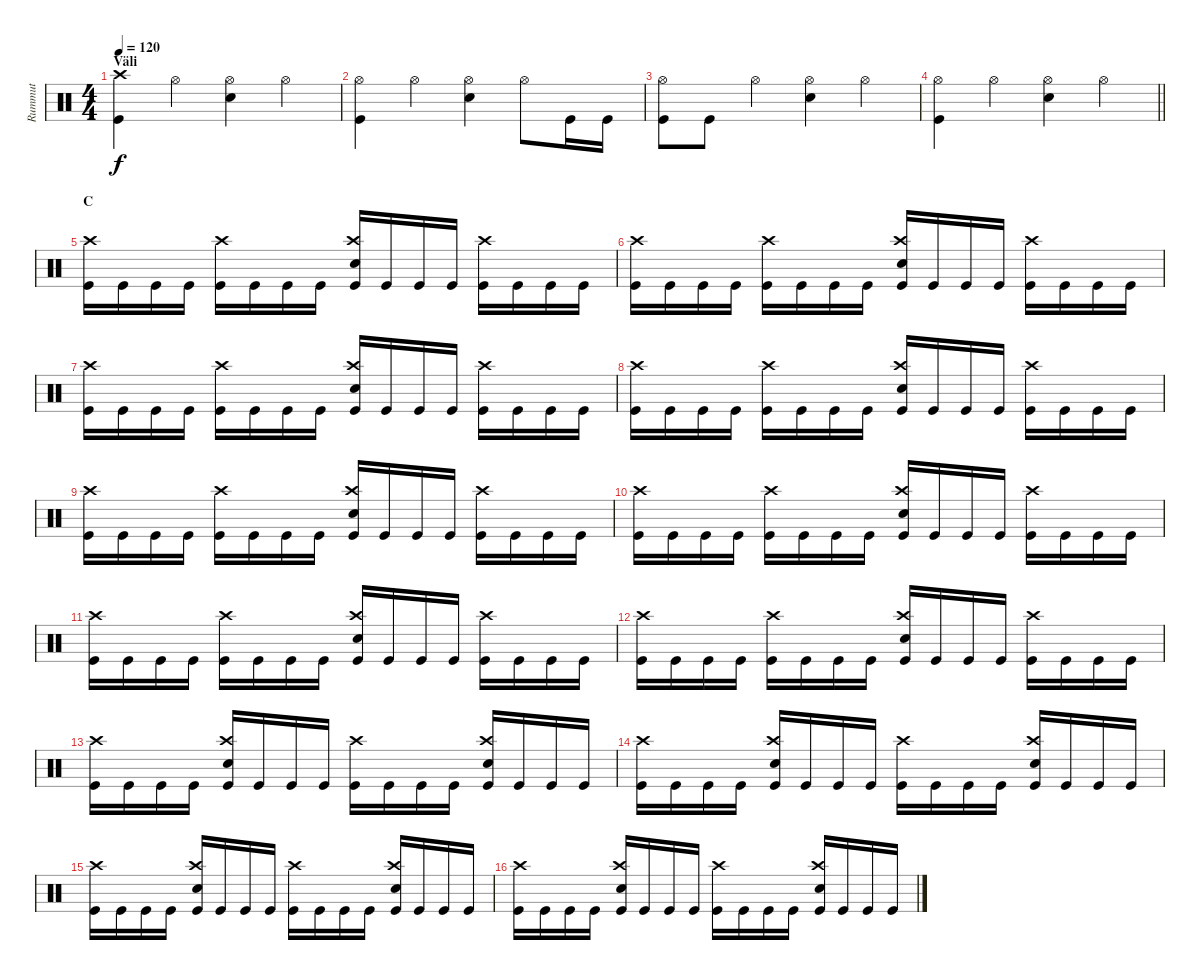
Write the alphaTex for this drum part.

\track ("Rummut" "Rummut") {instrument percussion}
\staff {score}
\articulation defaults
\ts (4 4)
\section ("" "Väli")
\tempo 120
\clef neutral
\ks c
("Kick (hit)" "Crash high (hit)").4{dy f} "Hi-Hat (open)".4 ("Hi-Hat (open)" "Snare (hit) 2").4 "Hi-Hat (open)".4 |
("Kick (hit)" "Hi-Hat (open)").4 "Hi-Hat (open)".4 ("Hi-Hat (open)" "Snare (hit) 2").4 "Hi-Hat (open)".8 "Kick (hit)".16 "Kick (hit)".16 |
("Hi-Hat (open)" "Kick (hit)").8 "Kick (hit)".8 "Hi-Hat (open)".4 ("Hi-Hat (open)" "Snare (hit) 2").4 "Hi-Hat (open)".4 |
\barLineRight lightlight
("Hi-Hat (open)" "Kick (hit)").4 "Hi-Hat (open)".4 ("Hi-Hat (open)" "Snare (hit) 2").4 "Hi-Hat (open)".4 |
\section ("" "C")
("Crash high (hit)" "Kick (hit)").16 "Kick (hit)".16 "Kick (hit)".16 "Kick (hit)".16 ("Crash high (hit)" "Kick (hit)").16 "Kick (hit)".16 "Kick (hit)".16 "Kick (hit)".16 ("Crash high (hit)" "Snare (hit) 2" "Kick (hit)").16 "Kick (hit)".16 "Kick (hit)".16 "Kick (hit)".16 ("Crash high (hit)" "Kick (hit)").16 "Kick (hit)".16 "Kick (hit)".16 "Kick (hit)".16 |
("Crash high (hit)" "Kick (hit)").16 "Kick (hit)".16 "Kick (hit)".16 "Kick (hit)".16 ("Crash high (hit)" "Kick (hit)").16 "Kick (hit)".16 "Kick (hit)".16 "Kick (hit)".16 ("Crash high (hit)" "Snare (hit) 2" "Kick (hit)").16 "Kick (hit)".16 "Kick (hit)".16 "Kick (hit)".16 ("Crash high (hit)" "Kick (hit)").16 "Kick (hit)".16 "Kick (hit)".16 "Kick (hit)".16 |
("Crash high (hit)" "Kick (hit)").16 "Kick (hit)".16 "Kick (hit)".16 "Kick (hit)".16 ("Crash high (hit)" "Kick (hit)").16 "Kick (hit)".16 "Kick (hit)".16 "Kick (hit)".16 ("Crash high (hit)" "Snare (hit) 2" "Kick (hit)").16 "Kick (hit)".16 "Kick (hit)".16 "Kick (hit)".16 ("Crash high (hit)" "Kick (hit)").16 "Kick (hit)".16 "Kick (hit)".16 "Kick (hit)".16 |
("Crash high (hit)" "Kick (hit)").16 "Kick (hit)".16 "Kick (hit)".16 "Kick (hit)".16 ("Crash high (hit)" "Kick (hit)").16 "Kick (hit)".16 "Kick (hit)".16 "Kick (hit)".16 ("Crash high (hit)" "Snare (hit) 2" "Kick (hit)").16 "Kick (hit)".16 "Kick (hit)".16 "Kick (hit)".16 ("Crash high (hit)" "Kick (hit)").16 "Kick (hit)".16 "Kick (hit)".16 "Kick (hit)".16 |
("Crash high (hit)" "Kick (hit)").16 "Kick (hit)".16 "Kick (hit)".16 "Kick (hit)".16 ("Crash high (hit)" "Kick (hit)").16 "Kick (hit)".16 "Kick (hit)".16 "Kick (hit)".16 ("Crash high (hit)" "Snare (hit) 2" "Kick (hit)").16 "Kick (hit)".16 "Kick (hit)".16 "Kick (hit)".16 ("Crash high (hit)" "Kick (hit)").16 "Kick (hit)".16 "Kick (hit)".16 "Kick (hit)".16 |
("Crash high (hit)" "Kick (hit)").16 "Kick (hit)".16 "Kick (hit)".16 "Kick (hit)".16 ("Crash high (hit)" "Kick (hit)").16 "Kick (hit)".16 "Kick (hit)".16 "Kick (hit)".16 ("Crash high (hit)" "Snare (hit) 2" "Kick (hit)").16 "Kick (hit)".16 "Kick (hit)".16 "Kick (hit)".16 ("Crash high (hit)" "Kick (hit)").16 "Kick (hit)".16 "Kick (hit)".16 "Kick (hit)".16 |
("Crash high (hit)" "Kick (hit)").16 "Kick (hit)".16 "Kick (hit)".16 "Kick (hit)".16 ("Crash high (hit)" "Kick (hit)").16 "Kick (hit)".16 "Kick (hit)".16 "Kick (hit)".16 ("Crash high (hit)" "Snare (hit) 2" "Kick (hit)").16 "Kick (hit)".16 "Kick (hit)".16 "Kick (hit)".16 ("Crash high (hit)" "Kick (hit)").16 "Kick (hit)".16 "Kick (hit)".16 "Kick (hit)".16 |
("Crash high (hit)" "Kick (hit)").16 "Kick (hit)".16 "Kick (hit)".16 "Kick (hit)".16 ("Crash high (hit)" "Kick (hit)").16 "Kick (hit)".16 "Kick (hit)".16 "Kick (hit)".16 ("Crash high (hit)" "Snare (hit) 2" "Kick (hit)").16 "Kick (hit)".16 "Kick (hit)".16 "Kick (hit)".16 ("Crash high (hit)" "Kick (hit)").16 "Kick (hit)".16 "Kick (hit)".16 "Kick (hit)".16 |
("Crash high (hit)" "Kick (hit)").16 "Kick (hit)".16 "Kick (hit)".16 "Kick (hit)".16 ("Crash high (hit)" "Snare (hit) 2" "Kick (hit)").16 "Kick (hit)".16 "Kick (hit)".16 "Kick (hit)".16 ("Crash high (hit)" "Kick (hit)").16 "Kick (hit)".16 "Kick (hit)".16 "Kick (hit)".16 ("Crash high (hit)" "Snare (hit) 2" "Kick (hit)").16 "Kick (hit)".16 "Kick (hit)".16 "Kick (hit)".16 |
("Crash high (hit)" "Kick (hit)").16 "Kick (hit)".16 "Kick (hit)".16 "Kick (hit)".16 ("Crash high (hit)" "Snare (hit) 2" "Kick (hit)").16 "Kick (hit)".16 "Kick (hit)".16 "Kick (hit)".16 ("Crash high (hit)" "Kick (hit)").16 "Kick (hit)".16 "Kick (hit)".16 "Kick (hit)".16 ("Crash high (hit)" "Snare (hit) 2" "Kick (hit)").16 "Kick (hit)".16 "Kick (hit)".16 "Kick (hit)".16 |
("Crash high (hit)" "Kick (hit)").16 "Kick (hit)".16 "Kick (hit)".16 "Kick (hit)".16 ("Crash high (hit)" "Snare (hit) 2" "Kick (hit)").16 "Kick (hit)".16 "Kick (hit)".16 "Kick (hit)".16 ("Crash high (hit)" "Kick (hit)").16 "Kick (hit)".16 "Kick (hit)".16 "Kick (hit)".16 ("Crash high (hit)" "Snare (hit) 2" "Kick (hit)").16 "Kick (hit)".16 "Kick (hit)".16 "Kick (hit)".16 |
("Crash high (hit)" "Kick (hit)").16 "Kick (hit)".16 "Kick (hit)".16 "Kick (hit)".16 ("Crash high (hit)" "Snare (hit) 2" "Kick (hit)").16 "Kick (hit)".16 "Kick (hit)".16 "Kick (hit)".16 ("Crash high (hit)" "Kick (hit)").16 "Kick (hit)".16 "Kick (hit)".16 "Kick (hit)".16 ("Crash high (hit)" "Snare (hit) 2" "Kick (hit)").16 "Kick (hit)".16 "Kick (hit)".16 "Kick (hit)".16
